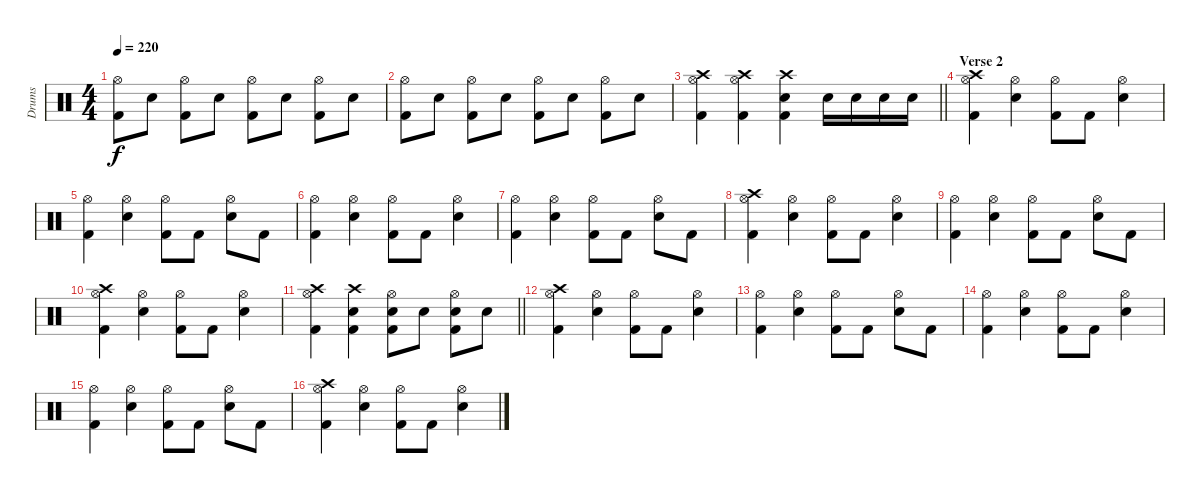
\track ("Drums" "Drums") {instrument percussion}
\staff {score}
\articulation defaults
\ts (4 4)
\tempo 220
\clef neutral
\ks c
("Hi-Hat (open)" "Kick (hit) 2").8{dy f} "Snare (hit) 2".8 ("Hi-Hat (open)" "Kick (hit) 2").8 "Snare (hit) 2".8 ("Hi-Hat (open)" "Kick (hit) 2").8 "Snare (hit) 2".8 ("Hi-Hat (open)" "Kick (hit) 2").8 "Snare (hit) 2".8 |
("Hi-Hat (open)" "Kick (hit) 2").8 "Snare (hit) 2".8 ("Hi-Hat (open)" "Kick (hit) 2").8 "Snare (hit) 2".8 ("Hi-Hat (open)" "Kick (hit) 2").8 "Snare (hit) 2".8 ("Hi-Hat (open)" "Kick (hit) 2").8 "Snare (hit) 2".8 |
\barLineRight lightlight
("Crash high (hit)" "Hi-Hat (open)" "Kick (hit) 2").4 ("Crash high (hit)" "Hi-Hat (open)" "Kick (hit) 2").4 ("Crash high (hit)" "Snare (hit) 2" "Kick (hit) 2").4 "Snare (hit) 2".16 "Snare (hit) 2".16 "Snare (hit) 2".16 "Snare (hit) 2".16 |
\section ("" "Verse 2")
("Crash high (hit)" "Hi-Hat (open)" "Kick (hit) 2").4 ("Hi-Hat (open)" "Snare (hit) 2").4 ("Hi-Hat (open)" "Kick (hit) 2").8 "Kick (hit) 2".8 ("Hi-Hat (open)" "Snare (hit) 2").4 |
("Hi-Hat (open)" "Kick (hit) 2").4 ("Hi-Hat (open)" "Snare (hit) 2").4 ("Hi-Hat (open)" "Kick (hit) 2").8 "Kick (hit) 2".8 ("Hi-Hat (open)" "Snare (hit) 2").8 "Kick (hit) 2".8 |
("Hi-Hat (open)" "Kick (hit) 2").4 ("Hi-Hat (open)" "Snare (hit) 2").4 ("Hi-Hat (open)" "Kick (hit) 2").8 "Kick (hit) 2".8 ("Hi-Hat (open)" "Snare (hit) 2").4 |
("Hi-Hat (open)" "Kick (hit) 2").4 ("Hi-Hat (open)" "Snare (hit) 2").4 ("Hi-Hat (open)" "Kick (hit) 2").8 "Kick (hit) 2".8 ("Hi-Hat (open)" "Snare (hit) 2").8 "Kick (hit) 2".8 |
("Crash high (hit)" "Hi-Hat (open)" "Kick (hit) 2").4 ("Hi-Hat (open)" "Snare (hit) 2").4 ("Hi-Hat (open)" "Kick (hit) 2").8 "Kick (hit) 2".8 ("Hi-Hat (open)" "Snare (hit) 2").4 |
("Hi-Hat (open)" "Kick (hit) 2").4 ("Hi-Hat (open)" "Snare (hit) 2").4 ("Hi-Hat (open)" "Kick (hit) 2").8 "Kick (hit) 2".8 ("Hi-Hat (open)" "Snare (hit) 2").8 "Kick (hit) 2".8 |
("Crash high (hit)" "Hi-Hat (open)" "Kick (hit) 2").4 ("Hi-Hat (open)" "Snare (hit) 2").4 ("Hi-Hat (open)" "Kick (hit) 2").8 "Kick (hit) 2".8 ("Hi-Hat (open)" "Snare (hit) 2").4 |
\barLineRight lightlight
("Crash high (hit)" "Hi-Hat (open)" "Kick (hit) 2").4 ("Crash high (hit)" "Snare (hit) 2" "Kick (hit) 2").4 ("Hi-Hat (open)" "Snare (hit) 2" "Kick (hit) 2").8 "Snare (hit) 2".8 ("Hi-Hat (open)" "Snare (hit) 2" "Kick (hit) 2").8 "Snare (hit) 2".8 |
("Crash high (hit)" "Hi-Hat (open)" "Kick (hit) 2").4 ("Hi-Hat (open)" "Snare (hit) 2").4 ("Hi-Hat (open)" "Kick (hit) 2").8 "Kick (hit) 2".8 ("Hi-Hat (open)" "Snare (hit) 2").4 |
("Hi-Hat (open)" "Kick (hit) 2").4 ("Hi-Hat (open)" "Snare (hit) 2").4 ("Hi-Hat (open)" "Kick (hit) 2").8 "Kick (hit) 2".8 ("Hi-Hat (open)" "Snare (hit) 2").8 "Kick (hit) 2".8 |
("Hi-Hat (open)" "Kick (hit) 2").4 ("Hi-Hat (open)" "Snare (hit) 2").4 ("Hi-Hat (open)" "Kick (hit) 2").8 "Kick (hit) 2".8 ("Hi-Hat (open)" "Snare (hit) 2").4 |
("Hi-Hat (open)" "Kick (hit) 2").4 ("Hi-Hat (open)" "Snare (hit) 2").4 ("Hi-Hat (open)" "Kick (hit) 2").8 "Kick (hit) 2".8 ("Hi-Hat (open)" "Snare (hit) 2").8 "Kick (hit) 2".8 |
("Crash high (hit)" "Hi-Hat (open)" "Kick (hit) 2").4 ("Hi-Hat (open)" "Snare (hit) 2").4 ("Hi-Hat (open)" "Kick (hit) 2").8 "Kick (hit) 2".8 ("Hi-Hat (open)" "Snare (hit) 2").4
